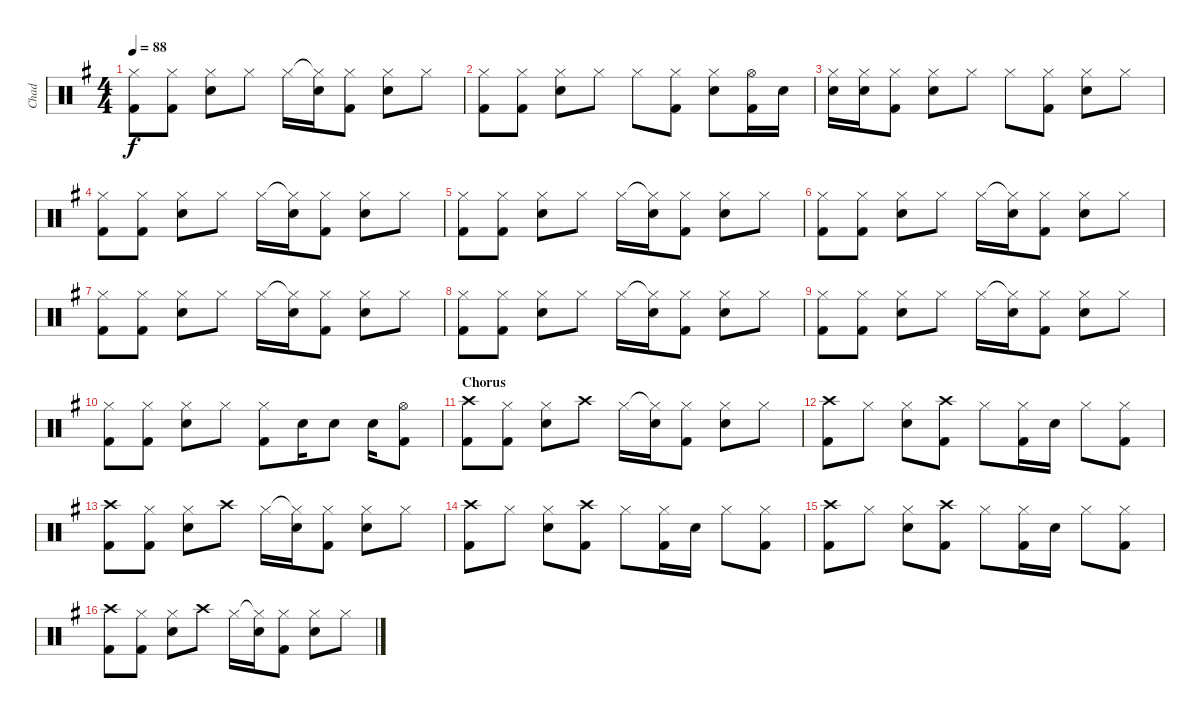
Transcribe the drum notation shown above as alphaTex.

\track ("Chad" "Chad") {instrument percussion}
\staff {score}
\articulation defaults
\ts (4 4)
\tempo 88
\clef neutral
\ks g
("Hi-Hat (closed)" "Kick (hit) 2").8{dy f} ("Hi-Hat (closed)" "Kick (hit) 2").8 ("Hi-Hat (closed)" "Snare (hit) 2").8 "Hi-Hat (closed)".8 "Hi-Hat (closed)".16 ("Hi-Hat (closed)"{t} "Snare (hit) 2").16 ("Hi-Hat (closed)" "Kick (hit) 2").8 ("Hi-Hat (closed)" "Snare (hit) 2").8 "Hi-Hat (closed)".8 |
("Hi-Hat (closed)" "Kick (hit) 2").8 ("Hi-Hat (closed)" "Kick (hit) 2").8 ("Hi-Hat (closed)" "Snare (hit) 2").8 "Hi-Hat (closed)".8 "Hi-Hat (closed)".8 ("Hi-Hat (closed)" "Kick (hit) 2").8 ("Hi-Hat (closed)" "Snare (hit) 2").8 ("Hi-Hat (open)" "Kick (hit) 2").16 "Snare (hit)".16 |
("Hi-Hat (closed)" "Snare (hit) 2").16 ("Hi-Hat (closed)" "Snare (hit) 2").16 ("Hi-Hat (closed)" "Kick (hit) 2").8 ("Hi-Hat (closed)" "Snare (hit) 2").8 "Hi-Hat (closed)".8 "Hi-Hat (closed)".8 ("Hi-Hat (closed)" "Kick (hit) 2").8 ("Hi-Hat (closed)" "Snare (hit) 2").8 "Hi-Hat (closed)".8 |
("Hi-Hat (closed)" "Kick (hit) 2").8 ("Hi-Hat (closed)" "Kick (hit) 2").8 ("Hi-Hat (closed)" "Snare (hit) 2").8 "Hi-Hat (closed)".8 "Hi-Hat (closed)".16 ("Hi-Hat (closed)"{t} "Snare (hit) 2").16 ("Hi-Hat (closed)" "Kick (hit) 2").8 ("Hi-Hat (closed)" "Snare (hit) 2").8 "Hi-Hat (closed)".8 |
("Hi-Hat (closed)" "Kick (hit) 2").8 ("Hi-Hat (closed)" "Kick (hit) 2").8 ("Hi-Hat (closed)" "Snare (hit) 2").8 "Hi-Hat (closed)".8 "Hi-Hat (closed)".16 ("Hi-Hat (closed)"{t} "Snare (hit) 2").16 ("Hi-Hat (closed)" "Kick (hit) 2").8 ("Hi-Hat (closed)" "Snare (hit) 2").8 "Hi-Hat (closed)".8 |
("Hi-Hat (closed)" "Kick (hit) 2").8 ("Hi-Hat (closed)" "Kick (hit) 2").8 ("Hi-Hat (closed)" "Snare (hit) 2").8 "Hi-Hat (closed)".8 "Hi-Hat (closed)".16 ("Hi-Hat (closed)"{t} "Snare (hit) 2").16 ("Hi-Hat (closed)" "Kick (hit) 2").8 ("Hi-Hat (closed)" "Snare (hit) 2").8 "Hi-Hat (closed)".8 |
("Hi-Hat (closed)" "Kick (hit) 2").8 ("Hi-Hat (closed)" "Kick (hit) 2").8 ("Hi-Hat (closed)" "Snare (hit) 2").8 "Hi-Hat (closed)".8 "Hi-Hat (closed)".16 ("Hi-Hat (closed)"{t} "Snare (hit) 2").16 ("Hi-Hat (closed)" "Kick (hit) 2").8 ("Hi-Hat (closed)" "Snare (hit) 2").8 "Hi-Hat (closed)".8 |
("Hi-Hat (closed)" "Kick (hit) 2").8 ("Hi-Hat (closed)" "Kick (hit) 2").8 ("Hi-Hat (closed)" "Snare (hit) 2").8 "Hi-Hat (closed)".8 "Hi-Hat (closed)".16 ("Hi-Hat (closed)"{t} "Snare (hit) 2").16 ("Hi-Hat (closed)" "Kick (hit) 2").8 ("Hi-Hat (closed)" "Snare (hit) 2").8 "Hi-Hat (closed)".8 |
("Hi-Hat (closed)" "Kick (hit) 2").8 ("Hi-Hat (closed)" "Kick (hit) 2").8 ("Hi-Hat (closed)" "Snare (hit) 2").8 "Hi-Hat (closed)".8 "Hi-Hat (closed)".16 ("Hi-Hat (closed)"{t} "Snare (hit) 2").16 ("Hi-Hat (closed)" "Kick (hit) 2").8 ("Hi-Hat (closed)" "Snare (hit) 2").8 "Hi-Hat (closed)".8 |
("Hi-Hat (closed)" "Kick (hit) 2").8 ("Hi-Hat (closed)" "Kick (hit) 2").8 ("Hi-Hat (closed)" "Snare (hit) 2").8 "Hi-Hat (closed)".8 ("Hi-Hat (closed)" "Kick (hit) 2").8 "Snare (hit) 2".16 "Snare (hit) 2".8 "Snare (hit) 2".16 ("Hi-Hat (open)" "Kick (hit) 2").8 |
\section ("" "Chorus")
("Crash high (hit)" "Kick (hit) 2").8 ("Hi-Hat (closed)" "Kick (hit) 2").8 ("Hi-Hat (closed)" "Snare (hit) 2").8 "Crash high (hit)".8 "Hi-Hat (closed)".16 ("Hi-Hat (closed)"{t} "Snare (hit) 2").16 ("Hi-Hat (closed)" "Kick (hit) 2").8 ("Hi-Hat (closed)" "Snare (hit) 2").8 "Hi-Hat (closed)".8 |
("Crash high (hit)" "Kick (hit) 2").8 "Hi-Hat (closed)".8 ("Hi-Hat (closed)" "Snare (hit) 2").8 ("Crash high (hit)" "Kick (hit) 2").8 "Hi-Hat (closed)".8 ("Hi-Hat (closed)" "Kick (hit) 2").16 "Snare (hit) 2".16 "Hi-Hat (closed)".8 ("Hi-Hat (closed)" "Kick (hit) 2").8 |
("Crash high (hit)" "Kick (hit) 2").8 ("Hi-Hat (closed)" "Kick (hit) 2").8 ("Hi-Hat (closed)" "Snare (hit) 2").8 "Crash high (hit)".8 "Hi-Hat (closed)".16 ("Hi-Hat (closed)"{t} "Snare (hit) 2").16 ("Hi-Hat (closed)" "Kick (hit) 2").8 ("Hi-Hat (closed)" "Snare (hit) 2").8 "Hi-Hat (closed)".8 |
("Crash high (hit)" "Kick (hit) 2").8 "Hi-Hat (closed)".8 ("Hi-Hat (closed)" "Snare (hit) 2").8 ("Crash high (hit)" "Kick (hit) 2").8 "Hi-Hat (closed)".8 ("Hi-Hat (closed)" "Kick (hit) 2").16 "Snare (hit) 2".16 "Hi-Hat (closed)".8 ("Hi-Hat (closed)" "Kick (hit) 2").8 |
("Crash high (hit)" "Kick (hit) 2").8 "Hi-Hat (closed)".8 ("Hi-Hat (closed)" "Snare (hit) 2").8 ("Crash high (hit)" "Kick (hit) 2").8 "Hi-Hat (closed)".8 ("Hi-Hat (closed)" "Kick (hit) 2").16 "Snare (hit) 2".16 "Hi-Hat (closed)".8 ("Hi-Hat (closed)" "Kick (hit) 2").8 |
("Crash high (hit)" "Kick (hit) 2").8 ("Hi-Hat (closed)" "Kick (hit) 2").8 ("Hi-Hat (closed)" "Snare (hit) 2").8 "Crash high (hit)".8 "Hi-Hat (closed)".16 ("Hi-Hat (closed)"{t} "Snare (hit) 2").16 ("Hi-Hat (closed)" "Kick (hit) 2").8 ("Hi-Hat (closed)" "Snare (hit) 2").8 "Hi-Hat (closed)".8
